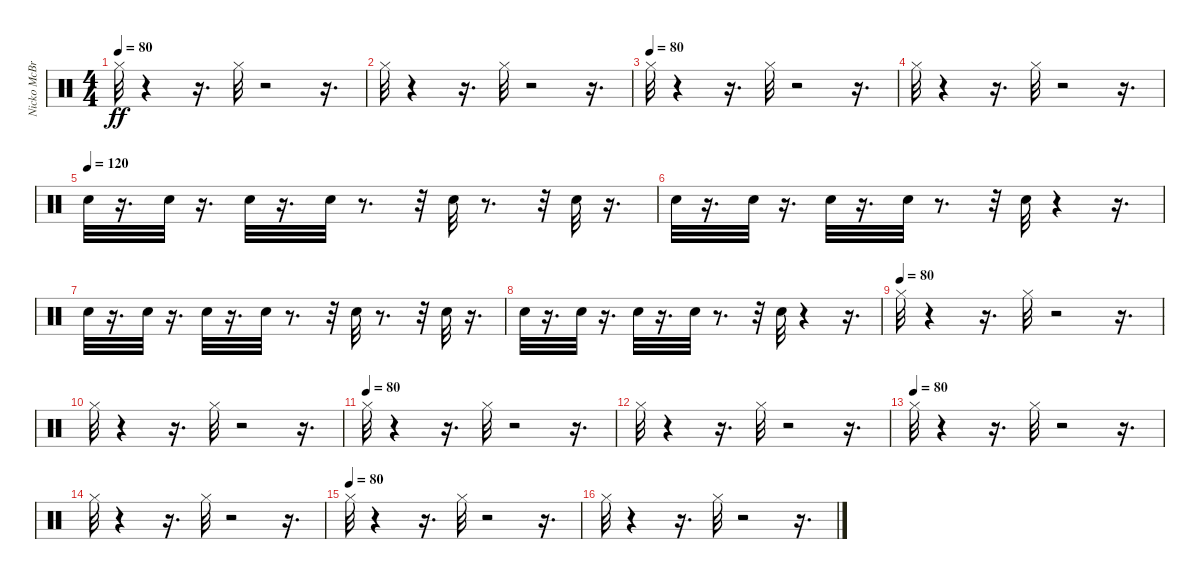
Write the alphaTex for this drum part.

\track ("Nicko McBrain" "Nicko McBr") {instrument percussion}
\staff {score}
\articulation defaults
\ts (4 4)
\tempo 80
\clef neutral
\ks c "Hi-Hat (closed)".32{dy ff}
r.4 r.16{d} "Hi-Hat (closed)".32 r.2 r.16{d} |
"Hi-Hat (closed)".32 r.4 r.16{d} "Hi-Hat (closed)".32 r.2 r.16{d} |
\tempo (80)
"Hi-Hat (closed)".32 r.4 r.16{d} "Hi-Hat (closed)".32 r.2 r.16{d} |
"Hi-Hat (closed)".32 r.4 r.16{d} "Hi-Hat (closed)".32 r.2 r.16{d} |
\tempo (120)
"Snare (hit) 2".32 r.16{d} "Snare (hit) 2".32 r.16{d} "Snare (hit) 2".32 r.16{d} "Snare (hit) 2".32 r.8{d} r.32 "Snare (hit) 2".32 r.8{d} r.32 "Snare (hit) 2".32 r.16{d} |
"Snare (hit) 2".32 r.16{d} "Snare (hit) 2".32 r.16{d} "Snare (hit) 2".32 r.16{d} "Snare (hit) 2".32 r.8{d} r.32 "Snare (hit) 2".32 r.4 r.16{d} |
"Snare (hit) 2".32 r.16{d} "Snare (hit) 2".32 r.16{d} "Snare (hit) 2".32 r.16{d} "Snare (hit) 2".32 r.8{d} r.32 "Snare (hit) 2".32 r.8{d} r.32 "Snare (hit) 2".32 r.16{d} |
"Snare (hit) 2".32 r.16{d} "Snare (hit) 2".32 r.16{d} "Snare (hit) 2".32 r.16{d} "Snare (hit) 2".32 r.8{d} r.32 "Snare (hit) 2".32 r.4 r.16{d} |
\tempo 112
\tempo (80)
"Hi-Hat (closed)".32 r.4 r.16{d} "Hi-Hat (closed)".32 r.2 r.16{d} |
"Hi-Hat (closed)".32 r.4 r.16{d} "Hi-Hat (closed)".32 r.2 r.16{d} |
\tempo (80)
"Hi-Hat (closed)".32 r.4 r.16{d} "Hi-Hat (closed)".32 r.2 r.16{d} |
"Hi-Hat (closed)".32 r.4 r.16{d} "Hi-Hat (closed)".32 r.2 r.16{d} |
\tempo (80)
"Hi-Hat (closed)".32 r.4 r.16{d} "Hi-Hat (closed)".32 r.2 r.16{d} |
"Hi-Hat (closed)".32 r.4 r.16{d} "Hi-Hat (closed)".32 r.2 r.16{d} |
\tempo (80)
"Hi-Hat (closed)".32 r.4 r.16{d} "Hi-Hat (closed)".32 r.2 r.16{d} |
"Hi-Hat (closed)".32 r.4 r.16{d} "Hi-Hat (closed)".32 r.2 r.16{d}
